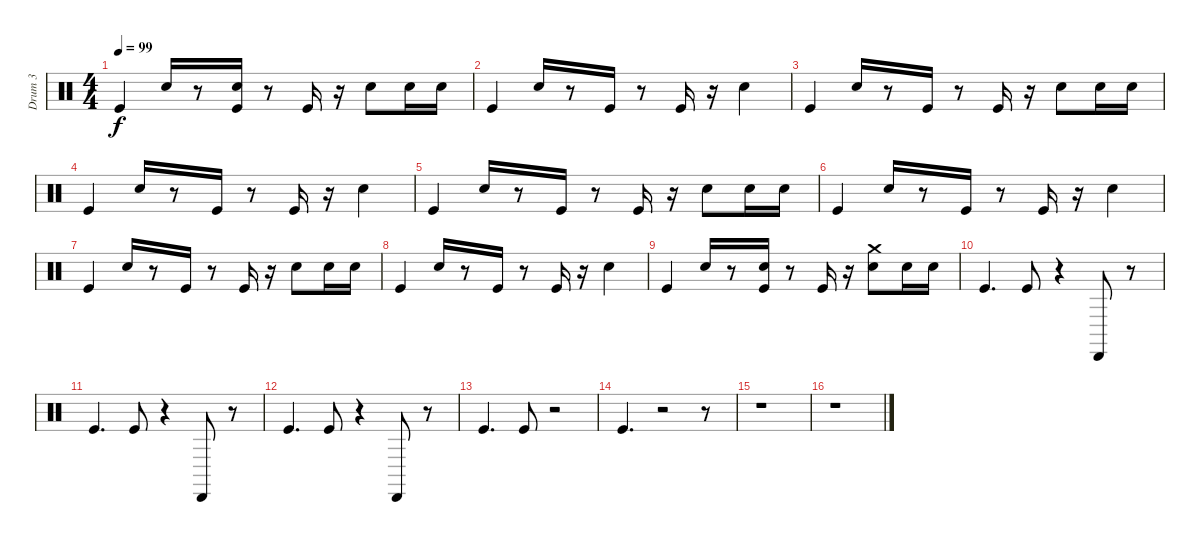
\track ("Drum 3" "Drum 3") {instrument percussion}
\staff {score}
\articulation defaults
\ts (4 4)
\tempo 99
\clef neutral
\ks c "Kick (hit)".4{dy f} "Snare (hit) 2".16
r.8 ("Snare (hit) 2" "Kick (hit)").16 r.8 "Kick (hit)".16 r.16 "Snare (hit) 2".8 "Snare (hit) 2".16 "Snare (hit) 2".16 |
"Kick (hit)".4 "Snare (hit) 2".16 r.8 "Kick (hit)".16 r.8 "Kick (hit)".16 r.16 "Snare (hit) 2".4 |
"Kick (hit)".4 "Snare (hit) 2".16 r.8 "Kick (hit)".16 r.8 "Kick (hit)".16 r.16 "Snare (hit) 2".8 "Snare (hit) 2".16 "Snare (hit) 2".16 |
"Kick (hit)".4 "Snare (hit) 2".16 r.8 "Kick (hit)".16 r.8 "Kick (hit)".16 r.16 "Snare (hit) 2".4 |
"Kick (hit)".4 "Snare (hit) 2".16 r.8 "Kick (hit)".16 r.8 "Kick (hit)".16 r.16 "Snare (hit) 2".8 "Snare (hit) 2".16 "Snare (hit) 2".16 |
"Kick (hit)".4 "Snare (hit) 2".16 r.8 "Kick (hit)".16 r.8 "Kick (hit)".16 r.16 "Snare (hit) 2".4 |
"Kick (hit)".4 "Snare (hit) 2".16 r.8 "Kick (hit)".16 r.8 "Kick (hit)".16 r.16 "Snare (hit) 2".8 "Snare (hit) 2".16 "Snare (hit) 2".16 |
"Kick (hit)".4 "Snare (hit) 2".16 r.8 "Kick (hit)".16 r.8 "Kick (hit)".16 r.16 "Snare (hit) 2".4 |
"Kick (hit)".4 "Snare (hit) 2".16 r.8 ("Snare (hit) 2" "Kick (hit)").16 r.8 "Kick (hit)".16 r.16 ("Crash medium (hit)" "Snare (hit) 2").8 "Snare (hit) 2".16 "Snare (hit) 2".16 |
"Kick (hit)".4{d} "Kick (hit)".8 r.4 "Cabasa (hit)".8 r.8 |
"Kick (hit)".4{d} "Kick (hit)".8 r.4 "Cabasa (hit)".8 r.8 |
"Kick (hit)".4{d} "Kick (hit)".8 r.4 "Cabasa (hit)".8 r.8 |
"Kick (hit)".4{d} "Kick (hit)".8 r.2 |
"Kick (hit)".4{d} r.2 r.8 |
r.1 |
r.1
